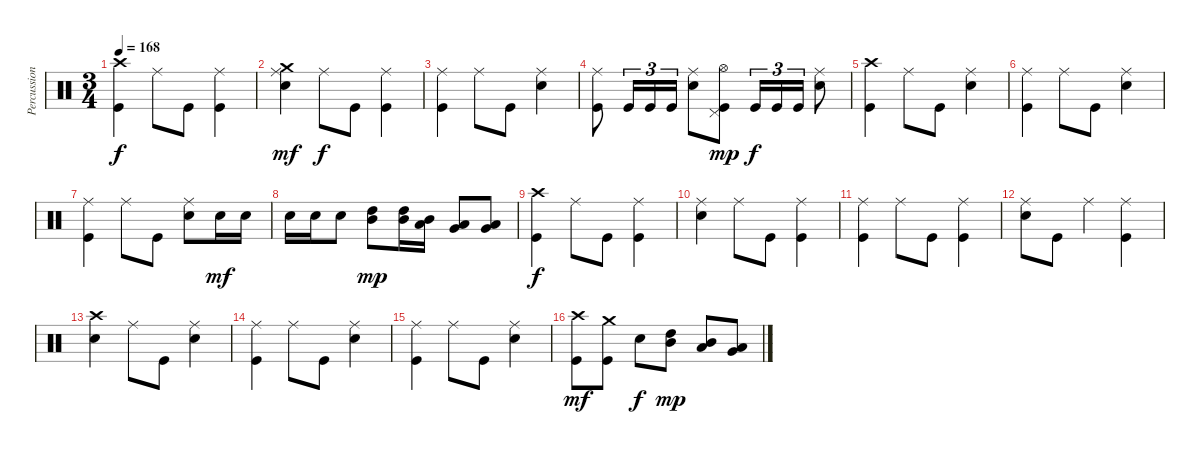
\track ("Percussions" "Percussion") {instrument percussion}
\staff {score}
\articulation defaults
\ts (3 4)
\tempo 168
\clef neutral
\ks c
("Kick (hit)" "Crash high (hit)").4{dy f} "Ride (middle)".8 "Kick (hit)".8 ("Kick (hit)" "Ride (middle)").4 |
("Electric Snare (hit)" "Ride (middle)" "Crash medium (hit)").4{dy mf} "Ride (middle)".8{dy f} "Kick (hit)".8 ("Kick (hit)" "Ride (middle)").4 |
("Kick (hit)" "Ride (middle)").4 "Ride (middle)".8 "Kick (hit)".8 ("Electric Snare (hit)" "Ride (middle)").4 |
("Kick (hit)" "Ride (middle)").8 "Kick (hit)".16{tu (3 2)} "Kick (hit)".16{tu (3 2)} "Kick (hit)".16{tu (3 2)} ("Electric Snare (hit)" "Ride (middle)").8 ("Kick (hit)" "Pedal Hi-Hat (hit)" "Hi-Hat (open)").8{dy mp} "Kick (hit)".16{tu (3 2) dy f} "Kick (hit)".16{tu (3 2)} "Kick (hit)".16{tu (3 2)} ("Electric Snare (hit)" "Ride (middle)").8 |
("Kick (hit)" "Crash high (hit)").4 "Ride (middle)".8 "Kick (hit)".8 ("Electric Snare (hit)" "Ride (middle)").4 |
("Kick (hit)" "Ride (middle)").4 "Ride (middle)".8 "Kick (hit)".8 ("Electric Snare (hit)" "Ride (middle)").4 |
("Kick (hit)" "Ride (middle)").4 "Ride (middle)".8 "Kick (hit)".8 ("Electric Snare (hit)" "Ride (middle)").8 "Electric Snare (hit)".16{dy mf} "Electric Snare (hit)".16 |
"Electric Snare (hit)".16 "Electric Snare (hit)".16 "Electric Snare (hit)".8 ("Mid Tom (hit)" "High Tom (hit)").8{dy mp} ("Mid Tom (hit)" "High Tom (hit)").16 ("Low Tom (hit)" "Mid Tom (hit)").16 ("Very Low Tom (hit)" "Low Tom (hit)").8 ("Low Floor Tom (hit)" "Very Low Tom (hit)").8 |
("Kick (hit)" "Crash high (hit)").4{dy f} "Ride (middle)".8 "Kick (hit)".8 ("Kick (hit)" "Ride (middle)").4 |
("Electric Snare (hit)" "Ride (middle)").4 "Ride (middle)".8 "Kick (hit)".8 ("Kick (hit)" "Ride (middle)").4 |
("Kick (hit)" "Ride (middle)").4 "Ride (middle)".8 "Kick (hit)".8 ("Kick (hit)" "Ride (middle)").4 |
("Electric Snare (hit)" "Ride (middle)").8 "Kick (hit)".8 "Ride (middle)".4 ("Kick (hit)" "Ride (middle)").4 |
("Electric Snare (hit)" "Crash high (hit)").4 "Ride (middle)".8 "Kick (hit)".8 ("Electric Snare (hit)" "Ride (middle)").4 |
("Kick (hit)" "Ride (middle)").4 "Ride (middle)".8 "Kick (hit)".8 ("Electric Snare (hit)" "Ride (middle)").4 |
("Kick (hit)" "Ride (middle)").4 "Ride (middle)".8 "Kick (hit)".8 ("Electric Snare (hit)" "Ride (middle)").4 |
("Kick (hit)" "Crash high (hit)").8{dy mf} ("Kick (hit)" "Crash medium (hit)").8 "Electric Snare (hit)".8{dy f} ("Mid Tom (hit)" "High Tom (hit)").8{dy mp} ("Low Tom (hit)" "Mid Tom (hit)").8 ("Very Low Tom (hit)" "Low Tom (hit)").8
